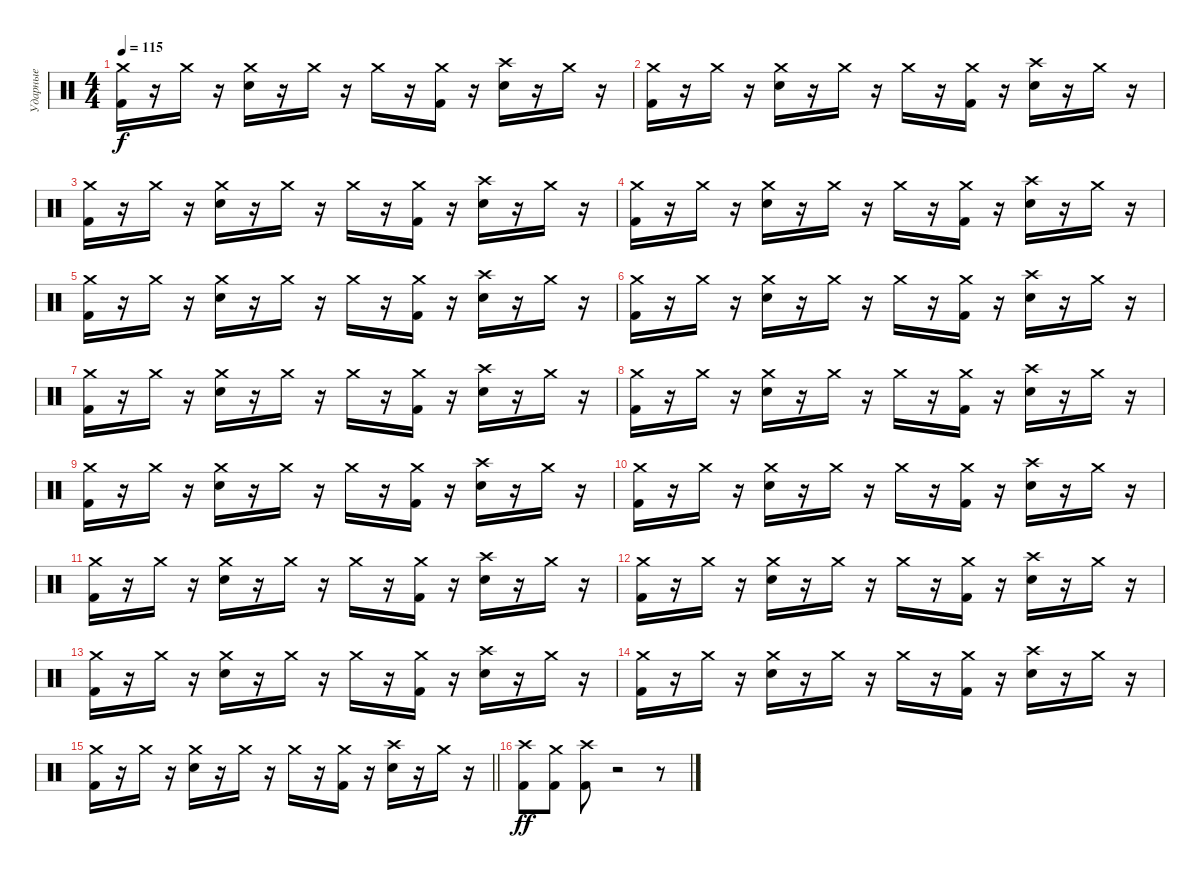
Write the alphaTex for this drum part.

\track ("Ударные" "Ударные") {instrument percussion}
\staff {score}
\articulation defaults
\ts (4 4)
\tempo 115
\clef neutral
\ks c
("Crash medium (hit)" "Kick (hit) 2").16{dy f} r.16 "Crash medium (hit)".16 r.16 ("Crash medium (hit)" "Electric Snare (hit)").16 r.16 "Crash medium (hit)".16 r.16 "Crash medium (hit)".16 r.16 ("Crash medium (hit)" "Kick (hit) 2").16 r.16 ("Crash high (hit)" "Electric Snare (hit)").16 r.16 "Crash medium (hit)".16 r.16 |
("Crash medium (hit)" "Kick (hit) 2").16 r.16 "Crash medium (hit)".16 r.16 ("Crash medium (hit)" "Electric Snare (hit)").16 r.16 "Crash medium (hit)".16 r.16 "Crash medium (hit)".16 r.16 ("Crash medium (hit)" "Kick (hit) 2").16 r.16 ("Crash high (hit)" "Electric Snare (hit)").16 r.16 "Crash medium (hit)".16 r.16 |
("Crash medium (hit)" "Kick (hit) 2").16 r.16 "Crash medium (hit)".16 r.16 ("Crash medium (hit)" "Electric Snare (hit)").16 r.16 "Crash medium (hit)".16 r.16 "Crash medium (hit)".16 r.16 ("Crash medium (hit)" "Kick (hit) 2").16 r.16 ("Crash high (hit)" "Electric Snare (hit)").16 r.16 "Crash medium (hit)".16 r.16 |
("Crash medium (hit)" "Kick (hit) 2").16 r.16 "Crash medium (hit)".16 r.16 ("Crash medium (hit)" "Electric Snare (hit)").16 r.16 "Crash medium (hit)".16 r.16 "Crash medium (hit)".16 r.16 ("Crash medium (hit)" "Kick (hit) 2").16 r.16 ("Crash high (hit)" "Electric Snare (hit)").16 r.16 "Crash medium (hit)".16 r.16 |
("Crash medium (hit)" "Kick (hit) 2").16 r.16 "Crash medium (hit)".16 r.16 ("Crash medium (hit)" "Electric Snare (hit)").16 r.16 "Crash medium (hit)".16 r.16 "Crash medium (hit)".16 r.16 ("Crash medium (hit)" "Kick (hit) 2").16 r.16 ("Crash high (hit)" "Electric Snare (hit)").16 r.16 "Crash medium (hit)".16 r.16 |
("Crash medium (hit)" "Kick (hit) 2").16 r.16 "Crash medium (hit)".16 r.16 ("Crash medium (hit)" "Electric Snare (hit)").16 r.16 "Crash medium (hit)".16 r.16 "Crash medium (hit)".16 r.16 ("Crash medium (hit)" "Kick (hit) 2").16 r.16 ("Crash high (hit)" "Electric Snare (hit)").16 r.16 "Crash medium (hit)".16 r.16 |
("Crash medium (hit)" "Kick (hit) 2").16 r.16 "Crash medium (hit)".16 r.16 ("Crash medium (hit)" "Electric Snare (hit)").16 r.16 "Crash medium (hit)".16 r.16 "Crash medium (hit)".16 r.16 ("Crash medium (hit)" "Kick (hit) 2").16 r.16 ("Crash high (hit)" "Electric Snare (hit)").16 r.16 "Crash medium (hit)".16 r.16 |
("Crash medium (hit)" "Kick (hit) 2").16 r.16 "Crash medium (hit)".16 r.16 ("Crash medium (hit)" "Electric Snare (hit)").16 r.16 "Crash medium (hit)".16 r.16 "Crash medium (hit)".16 r.16 ("Crash medium (hit)" "Kick (hit) 2").16 r.16 ("Crash high (hit)" "Electric Snare (hit)").16 r.16 "Crash medium (hit)".16 r.16 |
("Crash medium (hit)" "Kick (hit) 2").16 r.16 "Crash medium (hit)".16 r.16 ("Crash medium (hit)" "Electric Snare (hit)").16 r.16 "Crash medium (hit)".16 r.16 "Crash medium (hit)".16 r.16 ("Crash medium (hit)" "Kick (hit) 2").16 r.16 ("Crash high (hit)" "Electric Snare (hit)").16 r.16 "Crash medium (hit)".16 r.16 |
("Crash medium (hit)" "Kick (hit) 2").16 r.16 "Crash medium (hit)".16 r.16 ("Crash medium (hit)" "Electric Snare (hit)").16 r.16 "Crash medium (hit)".16 r.16 "Crash medium (hit)".16 r.16 ("Crash medium (hit)" "Kick (hit) 2").16 r.16 ("Crash high (hit)" "Electric Snare (hit)").16 r.16 "Crash medium (hit)".16 r.16 |
("Crash medium (hit)" "Kick (hit) 2").16 r.16 "Crash medium (hit)".16 r.16 ("Crash medium (hit)" "Electric Snare (hit)").16 r.16 "Crash medium (hit)".16 r.16 "Crash medium (hit)".16 r.16 ("Crash medium (hit)" "Kick (hit) 2").16 r.16 ("Crash high (hit)" "Electric Snare (hit)").16 r.16 "Crash medium (hit)".16 r.16 |
("Crash medium (hit)" "Kick (hit) 2").16 r.16 "Crash medium (hit)".16 r.16 ("Crash medium (hit)" "Electric Snare (hit)").16 r.16 "Crash medium (hit)".16 r.16 "Crash medium (hit)".16 r.16 ("Crash medium (hit)" "Kick (hit) 2").16 r.16 ("Crash high (hit)" "Electric Snare (hit)").16 r.16 "Crash medium (hit)".16 r.16 |
("Crash medium (hit)" "Kick (hit) 2").16 r.16 "Crash medium (hit)".16 r.16 ("Crash medium (hit)" "Electric Snare (hit)").16 r.16 "Crash medium (hit)".16 r.16 "Crash medium (hit)".16 r.16 ("Crash medium (hit)" "Kick (hit) 2").16 r.16 ("Crash high (hit)" "Electric Snare (hit)").16 r.16 "Crash medium (hit)".16 r.16 |
("Crash medium (hit)" "Kick (hit) 2").16 r.16 "Crash medium (hit)".16 r.16 ("Crash medium (hit)" "Electric Snare (hit)").16 r.16 "Crash medium (hit)".16 r.16 "Crash medium (hit)".16 r.16 ("Crash medium (hit)" "Kick (hit) 2").16 r.16 ("Crash high (hit)" "Electric Snare (hit)").16 r.16 "Crash medium (hit)".16 r.16 |
\barLineRight lightlight
("Crash medium (hit)" "Kick (hit) 2").16 r.16 "Crash medium (hit)".16 r.16 ("Crash medium (hit)" "Electric Snare (hit)").16 r.16 "Crash medium (hit)".16 r.16 "Crash medium (hit)".16 r.16 ("Crash medium (hit)" "Kick (hit) 2").16 r.16 ("Crash high (hit)" "Electric Snare (hit)").16 r.16 "Crash medium (hit)".16 r.16 |
("Crash high (hit)" "Kick (hit) 2").8{dy ff} ("Crash medium (hit)" "Kick (hit) 2").8 ("Crash high (hit)" "Kick (hit) 2").8 r.2 r.8
